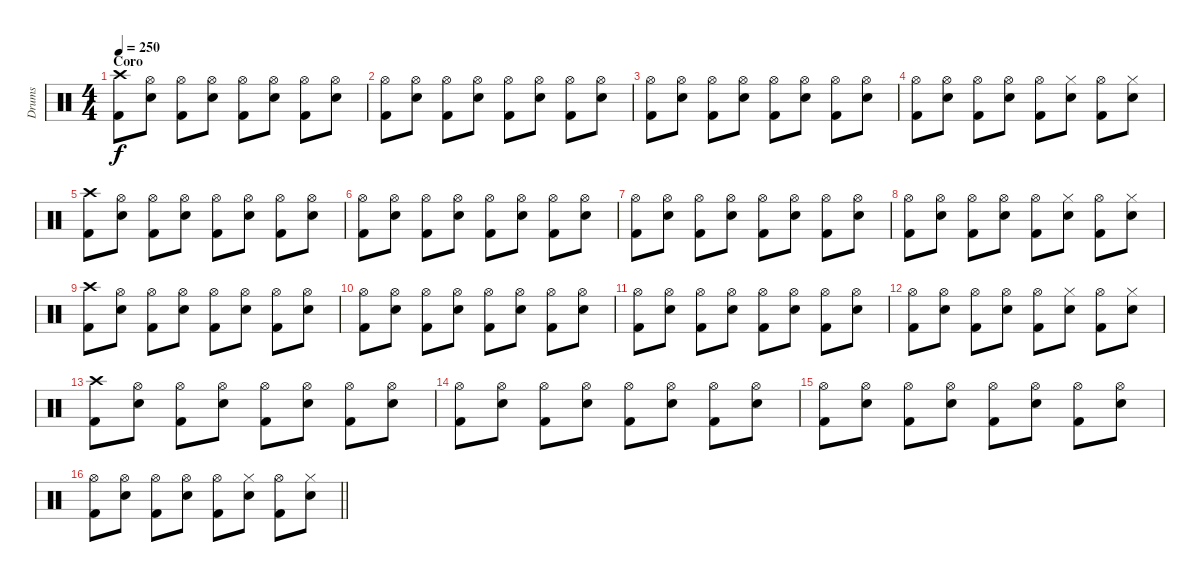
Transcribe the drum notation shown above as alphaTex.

\track ("Drums" "Drums") {instrument percussion}
\staff {score}
\articulation defaults
\ts (4 4)
\section ("" "Coro")
\tempo 250
\clef neutral
\ks c
("Crash high (hit)" "Kick (hit) 2").8{dy f} ("Hi-Hat (open)" "Snare (hit) 2").8 ("Hi-Hat (open)" "Kick (hit) 2").8 ("Hi-Hat (open)" "Snare (hit) 2").8 ("Hi-Hat (open)" "Kick (hit) 2").8 ("Hi-Hat (open)" "Snare (hit) 2").8 ("Hi-Hat (open)" "Kick (hit) 2").8 ("Hi-Hat (open)" "Snare (hit) 2").8 |
("Hi-Hat (open)" "Kick (hit) 2").8 ("Hi-Hat (open)" "Snare (hit) 2").8 ("Hi-Hat (open)" "Kick (hit) 2").8 ("Hi-Hat (open)" "Snare (hit) 2").8 ("Hi-Hat (open)" "Kick (hit) 2").8 ("Hi-Hat (open)" "Snare (hit) 2").8 ("Hi-Hat (open)" "Kick (hit) 2").8 ("Hi-Hat (open)" "Snare (hit) 2").8 |
("Hi-Hat (open)" "Kick (hit) 2").8 ("Hi-Hat (open)" "Snare (hit) 2").8 ("Hi-Hat (open)" "Kick (hit) 2").8 ("Hi-Hat (open)" "Snare (hit) 2").8 ("Hi-Hat (open)" "Kick (hit) 2").8 ("Hi-Hat (open)" "Snare (hit) 2").8 ("Hi-Hat (open)" "Kick (hit) 2").8 ("Hi-Hat (open)" "Snare (hit) 2").8 |
("Hi-Hat (open)" "Kick (hit) 2").8 ("Hi-Hat (open)" "Snare (hit) 2").8 ("Hi-Hat (open)" "Kick (hit) 2").8 ("Hi-Hat (open)" "Snare (hit) 2").8 ("Hi-Hat (open)" "Kick (hit) 2").8 ("Hi-Hat (closed)" "Snare (hit) 2").8 ("Hi-Hat (open)" "Kick (hit) 2").8 ("Hi-Hat (closed)" "Snare (hit) 2").8 |
("Crash high (hit)" "Kick (hit) 2").8 ("Hi-Hat (open)" "Snare (hit) 2").8 ("Hi-Hat (open)" "Kick (hit) 2").8 ("Hi-Hat (open)" "Snare (hit) 2").8 ("Hi-Hat (open)" "Kick (hit) 2").8 ("Hi-Hat (open)" "Snare (hit) 2").8 ("Hi-Hat (open)" "Kick (hit) 2").8 ("Hi-Hat (open)" "Snare (hit) 2").8 |
("Hi-Hat (open)" "Kick (hit) 2").8 ("Hi-Hat (open)" "Snare (hit) 2").8 ("Hi-Hat (open)" "Kick (hit) 2").8 ("Hi-Hat (open)" "Snare (hit) 2").8 ("Hi-Hat (open)" "Kick (hit) 2").8 ("Hi-Hat (open)" "Snare (hit) 2").8 ("Hi-Hat (open)" "Kick (hit) 2").8 ("Hi-Hat (open)" "Snare (hit) 2").8 |
("Hi-Hat (open)" "Kick (hit) 2").8 ("Hi-Hat (open)" "Snare (hit) 2").8 ("Hi-Hat (open)" "Kick (hit) 2").8 ("Hi-Hat (open)" "Snare (hit) 2").8 ("Hi-Hat (open)" "Kick (hit) 2").8 ("Hi-Hat (open)" "Snare (hit) 2").8 ("Hi-Hat (open)" "Kick (hit) 2").8 ("Hi-Hat (open)" "Snare (hit) 2").8 |
("Hi-Hat (open)" "Kick (hit) 2").8 ("Hi-Hat (open)" "Snare (hit) 2").8 ("Hi-Hat (open)" "Kick (hit) 2").8 ("Hi-Hat (open)" "Snare (hit) 2").8 ("Hi-Hat (open)" "Kick (hit) 2").8 ("Hi-Hat (closed)" "Snare (hit) 2").8 ("Hi-Hat (open)" "Kick (hit) 2").8 ("Hi-Hat (closed)" "Snare (hit) 2").8 |
("Crash high (hit)" "Kick (hit) 2").8 ("Hi-Hat (open)" "Snare (hit) 2").8 ("Hi-Hat (open)" "Kick (hit) 2").8 ("Hi-Hat (open)" "Snare (hit) 2").8 ("Hi-Hat (open)" "Kick (hit) 2").8 ("Hi-Hat (open)" "Snare (hit) 2").8 ("Hi-Hat (open)" "Kick (hit) 2").8 ("Hi-Hat (open)" "Snare (hit) 2").8 |
("Hi-Hat (open)" "Kick (hit) 2").8 ("Hi-Hat (open)" "Snare (hit) 2").8 ("Hi-Hat (open)" "Kick (hit) 2").8 ("Hi-Hat (open)" "Snare (hit) 2").8 ("Hi-Hat (open)" "Kick (hit) 2").8 ("Hi-Hat (open)" "Snare (hit) 2").8 ("Hi-Hat (open)" "Kick (hit) 2").8 ("Hi-Hat (open)" "Snare (hit) 2").8 |
("Hi-Hat (open)" "Kick (hit) 2").8 ("Hi-Hat (open)" "Snare (hit) 2").8 ("Hi-Hat (open)" "Kick (hit) 2").8 ("Hi-Hat (open)" "Snare (hit) 2").8 ("Hi-Hat (open)" "Kick (hit) 2").8 ("Hi-Hat (open)" "Snare (hit) 2").8 ("Hi-Hat (open)" "Kick (hit) 2").8 ("Hi-Hat (open)" "Snare (hit) 2").8 |
("Hi-Hat (open)" "Kick (hit) 2").8 ("Hi-Hat (open)" "Snare (hit) 2").8 ("Hi-Hat (open)" "Kick (hit) 2").8 ("Hi-Hat (open)" "Snare (hit) 2").8 ("Hi-Hat (open)" "Kick (hit) 2").8 ("Hi-Hat (closed)" "Snare (hit) 2").8 ("Hi-Hat (open)" "Kick (hit) 2").8 ("Hi-Hat (closed)" "Snare (hit) 2").8 |
("Crash high (hit)" "Kick (hit) 2").8 ("Hi-Hat (open)" "Snare (hit) 2").8 ("Hi-Hat (open)" "Kick (hit) 2").8 ("Hi-Hat (open)" "Snare (hit) 2").8 ("Hi-Hat (open)" "Kick (hit) 2").8 ("Hi-Hat (open)" "Snare (hit) 2").8 ("Hi-Hat (open)" "Kick (hit) 2").8 ("Hi-Hat (open)" "Snare (hit) 2").8 |
("Hi-Hat (open)" "Kick (hit) 2").8 ("Hi-Hat (open)" "Snare (hit) 2").8 ("Hi-Hat (open)" "Kick (hit) 2").8 ("Hi-Hat (open)" "Snare (hit) 2").8 ("Hi-Hat (open)" "Kick (hit) 2").8 ("Hi-Hat (open)" "Snare (hit) 2").8 ("Hi-Hat (open)" "Kick (hit) 2").8 ("Hi-Hat (open)" "Snare (hit) 2").8 |
("Hi-Hat (open)" "Kick (hit) 2").8 ("Hi-Hat (open)" "Snare (hit) 2").8 ("Hi-Hat (open)" "Kick (hit) 2").8 ("Hi-Hat (open)" "Snare (hit) 2").8 ("Hi-Hat (open)" "Kick (hit) 2").8 ("Hi-Hat (open)" "Snare (hit) 2").8 ("Hi-Hat (open)" "Kick (hit) 2").8 ("Hi-Hat (open)" "Snare (hit) 2").8 |
\barLineRight lightlight
("Hi-Hat (open)" "Kick (hit) 2").8 ("Hi-Hat (open)" "Snare (hit) 2").8 ("Hi-Hat (open)" "Kick (hit) 2").8 ("Hi-Hat (open)" "Snare (hit) 2").8 ("Hi-Hat (open)" "Kick (hit) 2").8 ("Hi-Hat (closed)" "Snare (hit) 2").8 ("Hi-Hat (open)" "Kick (hit) 2").8 ("Hi-Hat (closed)" "Snare (hit) 2").8
